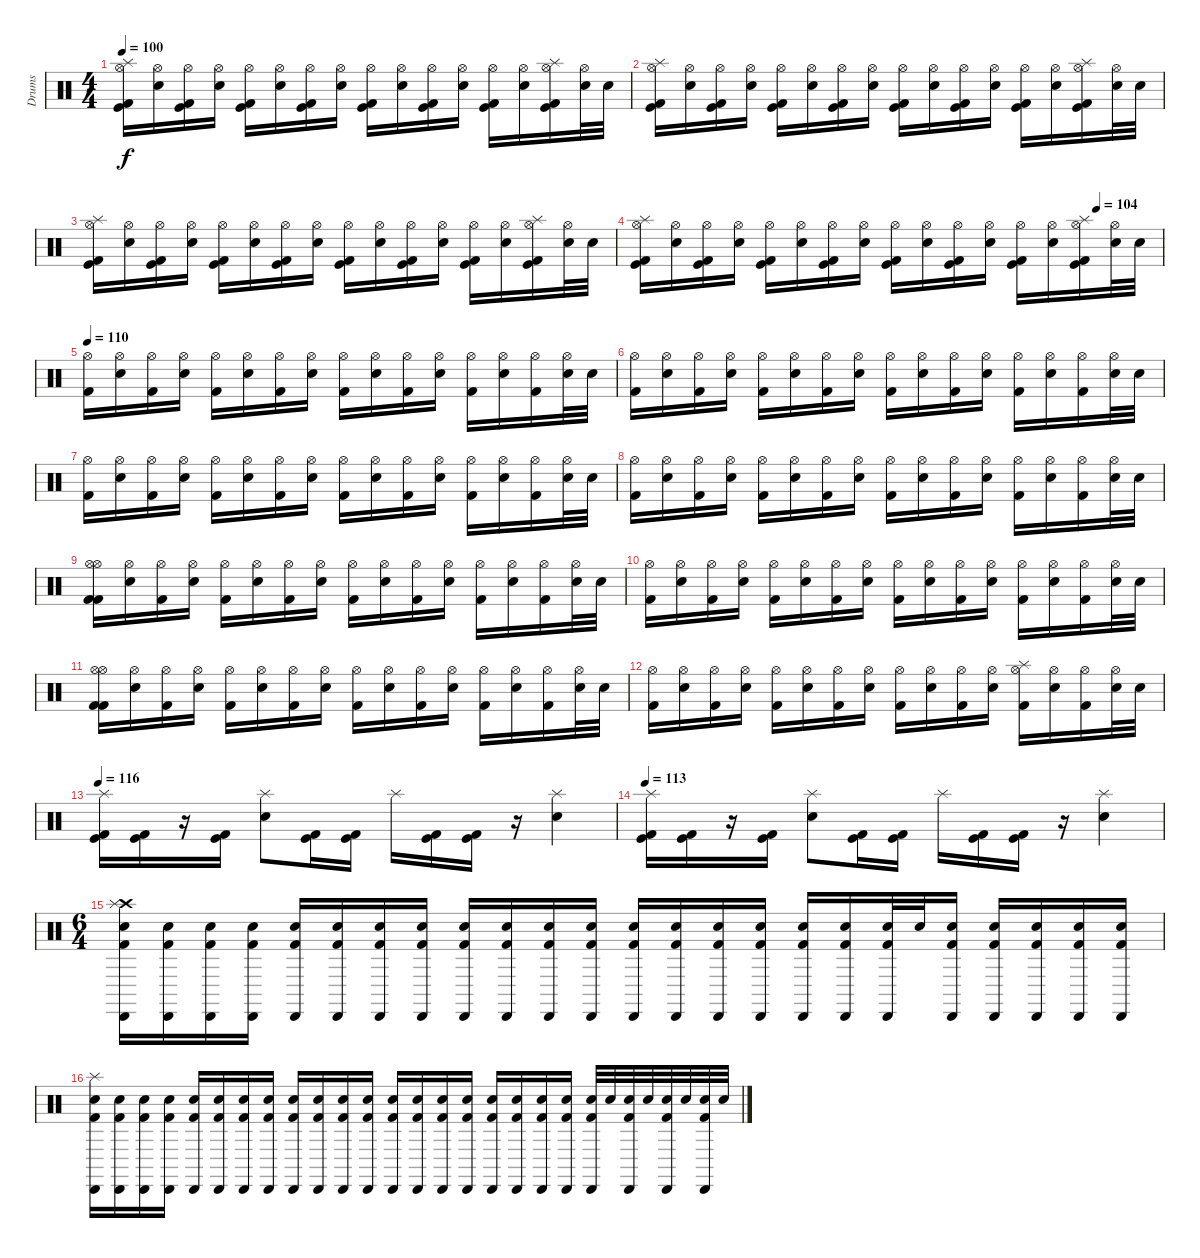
\track ("Drums" "Drums") {instrument percussion}
\staff {score}
\articulation defaults
\ts (4 4)
\tempo 100
\clef neutral
\ks c
("Splash (hit)" "Hi-Hat (open)" "Kick (hit)" "Kick (hit) 2").16{dy f} ("Hi-Hat (open)" "Snare (hit) 2").16 ("Hi-Hat (open)" "Kick (hit)" "Kick (hit) 2").16 ("Hi-Hat (open)" "Snare (hit) 2").16 ("Hi-Hat (open)" "Kick (hit)" "Kick (hit) 2").16 ("Hi-Hat (open)" "Snare (hit) 2").16 ("Hi-Hat (open)" "Kick (hit)" "Kick (hit) 2").16 ("Hi-Hat (open)" "Snare (hit) 2").16 ("Hi-Hat (open)" "Kick (hit)" "Kick (hit) 2").16 ("Hi-Hat (open)" "Snare (hit) 2").16 ("Hi-Hat (open)" "Kick (hit)" "Kick (hit) 2").16 ("Hi-Hat (open)" "Snare (hit) 2").16 ("Hi-Hat (open)" "Kick (hit)" "Kick (hit) 2").16 ("Hi-Hat (open)" "Snare (hit) 2").16 ("Splash (hit)" "Hi-Hat (open)" "Kick (hit)" "Kick (hit) 2").16 ("Hi-Hat (open)" "Snare (hit) 2").32 "Snare (hit) 2".32 |
("Splash (hit)" "Hi-Hat (open)" "Kick (hit)" "Kick (hit) 2").16 ("Hi-Hat (open)" "Snare (hit) 2").16 ("Hi-Hat (open)" "Kick (hit)" "Kick (hit) 2").16 ("Hi-Hat (open)" "Snare (hit) 2").16 ("Hi-Hat (open)" "Kick (hit)" "Kick (hit) 2").16 ("Hi-Hat (open)" "Snare (hit) 2").16 ("Hi-Hat (open)" "Kick (hit)" "Kick (hit) 2").16 ("Hi-Hat (open)" "Snare (hit) 2").16 ("Hi-Hat (open)" "Kick (hit)" "Kick (hit) 2").16 ("Hi-Hat (open)" "Snare (hit) 2").16 ("Hi-Hat (open)" "Kick (hit)" "Kick (hit) 2").16 ("Hi-Hat (open)" "Snare (hit) 2").16 ("Hi-Hat (open)" "Kick (hit)" "Kick (hit) 2").16 ("Hi-Hat (open)" "Snare (hit) 2").16 ("Splash (hit)" "Hi-Hat (open)" "Kick (hit)" "Kick (hit) 2").16 ("Hi-Hat (open)" "Snare (hit) 2").32 "Snare (hit) 2".32 |
("Splash (hit)" "Hi-Hat (open)" "Kick (hit)" "Kick (hit) 2").16 ("Hi-Hat (open)" "Snare (hit) 2").16 ("Hi-Hat (open)" "Kick (hit)" "Kick (hit) 2").16 ("Hi-Hat (open)" "Snare (hit) 2").16 ("Hi-Hat (open)" "Kick (hit)" "Kick (hit) 2").16 ("Hi-Hat (open)" "Snare (hit) 2").16 ("Hi-Hat (open)" "Kick (hit)" "Kick (hit) 2").16 ("Hi-Hat (open)" "Snare (hit) 2").16 ("Hi-Hat (open)" "Kick (hit)" "Kick (hit) 2").16 ("Hi-Hat (open)" "Snare (hit) 2").16 ("Hi-Hat (open)" "Kick (hit)" "Kick (hit) 2").16 ("Hi-Hat (open)" "Snare (hit) 2").16 ("Hi-Hat (open)" "Kick (hit)" "Kick (hit) 2").16 ("Hi-Hat (open)" "Snare (hit) 2").16 ("Splash (hit)" "Hi-Hat (open)" "Kick (hit)" "Kick (hit) 2").16 ("Hi-Hat (open)" "Snare (hit) 2").32 "Snare (hit) 2".32 |
\tempo (104 0.875)
("Splash (hit)" "Hi-Hat (open)" "Kick (hit)" "Kick (hit) 2").16 ("Hi-Hat (open)" "Snare (hit) 2").16 ("Hi-Hat (open)" "Kick (hit)" "Kick (hit) 2").16 ("Hi-Hat (open)" "Snare (hit) 2").16 ("Hi-Hat (open)" "Kick (hit)" "Kick (hit) 2").16 ("Hi-Hat (open)" "Snare (hit) 2").16 ("Hi-Hat (open)" "Kick (hit)" "Kick (hit) 2").16 ("Hi-Hat (open)" "Snare (hit) 2").16 ("Hi-Hat (open)" "Kick (hit)" "Kick (hit) 2").16 ("Hi-Hat (open)" "Snare (hit) 2").16 ("Hi-Hat (open)" "Kick (hit)" "Kick (hit) 2").16 ("Hi-Hat (open)" "Snare (hit) 2").16 ("Hi-Hat (open)" "Kick (hit)" "Kick (hit) 2").16 ("Hi-Hat (open)" "Snare (hit) 2").16 ("Splash (hit)" "Hi-Hat (open)" "Kick (hit)" "Kick (hit) 2").16 ("Hi-Hat (open)" "Snare (hit) 2").32 "Snare (hit) 2".32 |
\tempo 110
("Hi-Hat (open)" "Kick (hit) 2").16 ("Hi-Hat (open)" "Snare (hit) 2").16 ("Hi-Hat (open)" "Kick (hit) 2").16 ("Hi-Hat (open)" "Snare (hit) 2").16 ("Hi-Hat (open)" "Kick (hit) 2").16 ("Hi-Hat (open)" "Snare (hit) 2").16 ("Hi-Hat (open)" "Kick (hit) 2").16 ("Hi-Hat (open)" "Snare (hit) 2").16 ("Hi-Hat (open)" "Kick (hit) 2").16 ("Hi-Hat (open)" "Snare (hit) 2").16 ("Hi-Hat (open)" "Kick (hit) 2").16 ("Hi-Hat (open)" "Snare (hit) 2").16 ("Hi-Hat (open)" "Kick (hit) 2").16 ("Hi-Hat (open)" "Snare (hit) 2").16 ("Hi-Hat (open)" "Kick (hit) 2").16 ("Hi-Hat (open)" "Snare (hit) 2").32 "Snare (hit) 2".32 |
("Hi-Hat (open)" "Kick (hit) 2").16 ("Hi-Hat (open)" "Snare (hit) 2").16 ("Hi-Hat (open)" "Kick (hit) 2").16 ("Hi-Hat (open)" "Snare (hit) 2").16 ("Hi-Hat (open)" "Kick (hit) 2").16 ("Hi-Hat (open)" "Snare (hit) 2").16 ("Hi-Hat (open)" "Kick (hit) 2").16 ("Hi-Hat (open)" "Snare (hit) 2").16 ("Hi-Hat (open)" "Kick (hit) 2").16 ("Hi-Hat (open)" "Snare (hit) 2").16 ("Hi-Hat (open)" "Kick (hit) 2").16 ("Hi-Hat (open)" "Snare (hit) 2").16 ("Hi-Hat (open)" "Kick (hit) 2").16 ("Hi-Hat (open)" "Snare (hit) 2").16 ("Hi-Hat (open)" "Kick (hit) 2").16 ("Hi-Hat (open)" "Snare (hit) 2").32 "Snare (hit) 2".32 |
("Hi-Hat (open)" "Kick (hit) 2").16 ("Hi-Hat (open)" "Snare (hit) 2").16 ("Hi-Hat (open)" "Kick (hit) 2").16 ("Hi-Hat (open)" "Snare (hit) 2").16 ("Hi-Hat (open)" "Kick (hit) 2").16 ("Hi-Hat (open)" "Snare (hit) 2").16 ("Hi-Hat (open)" "Kick (hit) 2").16 ("Hi-Hat (open)" "Snare (hit) 2").16 ("Hi-Hat (open)" "Kick (hit) 2").16 ("Hi-Hat (open)" "Snare (hit) 2").16 ("Hi-Hat (open)" "Kick (hit) 2").16 ("Hi-Hat (open)" "Snare (hit) 2").16 ("Hi-Hat (open)" "Kick (hit) 2").16 ("Hi-Hat (open)" "Snare (hit) 2").16 ("Hi-Hat (open)" "Kick (hit) 2").16 ("Hi-Hat (open)" "Snare (hit) 2").32 "Snare (hit) 2".32 |
("Hi-Hat (open)" "Kick (hit) 2").16 ("Hi-Hat (open)" "Snare (hit) 2").16 ("Hi-Hat (open)" "Kick (hit) 2").16 ("Hi-Hat (open)" "Snare (hit) 2").16 ("Hi-Hat (open)" "Kick (hit) 2").16 ("Hi-Hat (open)" "Snare (hit) 2").16 ("Hi-Hat (open)" "Kick (hit) 2").16 ("Hi-Hat (open)" "Snare (hit) 2").16 ("Hi-Hat (open)" "Kick (hit) 2").16 ("Hi-Hat (open)" "Snare (hit) 2").16 ("Hi-Hat (open)" "Kick (hit) 2").16 ("Hi-Hat (open)" "Snare (hit) 2").16 ("Hi-Hat (open)" "Kick (hit) 2").16 ("Hi-Hat (open)" "Snare (hit) 2").16 ("Hi-Hat (open)" "Kick (hit) 2").16 ("Hi-Hat (open)" "Snare (hit) 2").32 "Snare (hit) 2".32 |
("Hi-Hat (open)" "Kick (hit) 2" "Hi-Hat (open)" "Kick (hit) 2").16 ("Hi-Hat (open)" "Snare (hit) 2").16 ("Hi-Hat (open)" "Kick (hit) 2").16 ("Hi-Hat (open)" "Snare (hit) 2").16 ("Hi-Hat (open)" "Kick (hit) 2").16 ("Hi-Hat (open)" "Snare (hit) 2").16 ("Hi-Hat (open)" "Kick (hit) 2").16 ("Hi-Hat (open)" "Snare (hit) 2").16 ("Hi-Hat (open)" "Kick (hit) 2").16 ("Hi-Hat (open)" "Snare (hit) 2").16 ("Hi-Hat (open)" "Kick (hit) 2").16 ("Hi-Hat (open)" "Snare (hit) 2").16 ("Hi-Hat (open)" "Kick (hit) 2").16 ("Hi-Hat (open)" "Snare (hit) 2").16 ("Hi-Hat (open)" "Kick (hit) 2").16 ("Hi-Hat (open)" "Snare (hit) 2").32 "Snare (hit) 2".32 |
("Hi-Hat (open)" "Kick (hit) 2").16 ("Hi-Hat (open)" "Snare (hit) 2").16 ("Hi-Hat (open)" "Kick (hit) 2").16 ("Hi-Hat (open)" "Snare (hit) 2").16 ("Hi-Hat (open)" "Kick (hit) 2").16 ("Hi-Hat (open)" "Snare (hit) 2").16 ("Hi-Hat (open)" "Kick (hit) 2").16 ("Hi-Hat (open)" "Snare (hit) 2").16 ("Hi-Hat (open)" "Kick (hit) 2").16 ("Hi-Hat (open)" "Snare (hit) 2").16 ("Hi-Hat (open)" "Kick (hit) 2").16 ("Hi-Hat (open)" "Snare (hit) 2").16 ("Hi-Hat (open)" "Kick (hit) 2").16 ("Hi-Hat (open)" "Snare (hit) 2").16 ("Hi-Hat (open)" "Kick (hit) 2").16 ("Hi-Hat (open)" "Snare (hit) 2").32 "Snare (hit) 2".32 |
("Hi-Hat (open)" "Kick (hit) 2" "Hi-Hat (open)" "Kick (hit) 2").16 ("Hi-Hat (open)" "Snare (hit) 2").16 ("Hi-Hat (open)" "Kick (hit) 2").16 ("Hi-Hat (open)" "Snare (hit) 2").16 ("Hi-Hat (open)" "Kick (hit) 2").16 ("Hi-Hat (open)" "Snare (hit) 2").16 ("Hi-Hat (open)" "Kick (hit) 2").16 ("Hi-Hat (open)" "Snare (hit) 2").16 ("Hi-Hat (open)" "Kick (hit) 2").16 ("Hi-Hat (open)" "Snare (hit) 2").16 ("Hi-Hat (open)" "Kick (hit) 2").16 ("Hi-Hat (open)" "Snare (hit) 2").16 ("Hi-Hat (open)" "Kick (hit) 2").16 ("Hi-Hat (open)" "Snare (hit) 2").16 ("Hi-Hat (open)" "Kick (hit) 2").16 ("Hi-Hat (open)" "Snare (hit) 2").32 "Snare (hit) 2".32 |
("Hi-Hat (open)" "Kick (hit) 2").16 ("Hi-Hat (open)" "Snare (hit) 2").16 ("Hi-Hat (open)" "Kick (hit) 2").16 ("Hi-Hat (open)" "Snare (hit) 2").16 ("Hi-Hat (open)" "Kick (hit) 2").16 ("Hi-Hat (open)" "Snare (hit) 2").16 ("Hi-Hat (open)" "Kick (hit) 2").16 ("Hi-Hat (open)" "Snare (hit) 2").16 ("Hi-Hat (open)" "Kick (hit) 2").16 ("Hi-Hat (open)" "Snare (hit) 2").16 ("Hi-Hat (open)" "Kick (hit) 2").16 ("Hi-Hat (open)" "Snare (hit) 2").16 ("Splash (hit)" "Hi-Hat (open)" "Kick (hit) 2").16 ("Hi-Hat (open)" "Snare (hit) 2").16 ("Hi-Hat (open)" "Kick (hit) 2").16 ("Hi-Hat (open)" "Snare (hit) 2").32 "Snare (hit) 2".32 |
\tempo 116
("Kick (hit) 2" "Kick (hit)" "Splash (hit)").16 ("Kick (hit) 2" "Kick (hit)").16 r.16 ("Kick (hit)" "Kick (hit) 2").16 ("Snare (hit) 2" "Splash (hit)").8 ("Kick (hit) 2" "Kick (hit)").16 ("Kick (hit)" "Kick (hit) 2").16 "Splash (hit)".16 ("Kick (hit)" "Kick (hit) 2").16 ("Kick (hit)" "Kick (hit) 2").16 r.16 ("Snare (hit) 2" "Splash (hit)").4 |
\tempo 113
("Kick (hit) 2" "Kick (hit)" "Splash (hit)").16 ("Kick (hit) 2" "Kick (hit)").16 r.16 ("Kick (hit)" "Kick (hit) 2").16 ("Snare (hit) 2" "Splash (hit)").8 ("Kick (hit) 2" "Kick (hit)").16 ("Kick (hit)" "Kick (hit) 2").16 "Splash (hit)".16 ("Kick (hit)" "Kick (hit) 2").16 ("Kick (hit)" "Kick (hit) 2").16 r.16 ("Snare (hit) 2" "Splash (hit)").4 |
\ts (6 4)
("Crash high (hit)" "Splash (hit)" "Cabasa (hit)" "Kick (hit) 2" "Electric Snare (hit)").16 ("Cabasa (hit)" "Kick (hit) 2" "Electric Snare (hit)").16 ("Cabasa (hit)" "Kick (hit) 2" "Electric Snare (hit)").16 ("Cabasa (hit)" "Kick (hit) 2" "Electric Snare (hit)").16 ("Cabasa (hit)" "Kick (hit) 2" "Electric Snare (hit)").16 ("Cabasa (hit)" "Kick (hit) 2" "Electric Snare (hit)").16 ("Cabasa (hit)" "Kick (hit) 2" "Electric Snare (hit)").16 ("Cabasa (hit)" "Kick (hit) 2" "Electric Snare (hit)").16 ("Cabasa (hit)" "Kick (hit) 2" "Electric Snare (hit)").16 ("Cabasa (hit)" "Kick (hit) 2" "Electric Snare (hit)").16 ("Cabasa (hit)" "Kick (hit) 2" "Electric Snare (hit)").16 ("Cabasa (hit)" "Kick (hit) 2" "Electric Snare (hit)").16 ("Cabasa (hit)" "Kick (hit) 2" "Electric Snare (hit)").16 ("Cabasa (hit)" "Kick (hit) 2" "Electric Snare (hit)").16 ("Cabasa (hit)" "Kick (hit) 2" "Electric Snare (hit)").16 ("Cabasa (hit)" "Kick (hit) 2" "Electric Snare (hit)").16 ("Cabasa (hit)" "Kick (hit) 2" "Electric Snare (hit)").16 ("Cabasa (hit)" "Kick (hit) 2" "Electric Snare (hit)").16 ("Cabasa (hit)" "Kick (hit) 2" "Electric Snare (hit)").32 "Electric Snare (hit)".32 ("Cabasa (hit)" "Kick (hit) 2" "Electric Snare (hit)").16 ("Cabasa (hit)" "Kick (hit) 2" "Electric Snare (hit)").16 ("Cabasa (hit)" "Kick (hit) 2" "Electric Snare (hit)").16 ("Cabasa (hit)" "Kick (hit) 2" "Electric Snare (hit)").16 ("Cabasa (hit)" "Kick (hit) 2" "Electric Snare (hit)").16 |
("Cabasa (hit)" "Splash (hit)" "Electric Snare (hit)" "Kick (hit) 2").16 ("Cabasa (hit)" "Kick (hit) 2" "Electric Snare (hit)").16 ("Cabasa (hit)" "Kick (hit) 2" "Electric Snare (hit)").16 ("Cabasa (hit)" "Kick (hit) 2" "Electric Snare (hit)").16 ("Cabasa (hit)" "Kick (hit) 2" "Electric Snare (hit)").16 ("Cabasa (hit)" "Kick (hit) 2" "Electric Snare (hit)").16 ("Cabasa (hit)" "Kick (hit) 2" "Electric Snare (hit)").16 ("Cabasa (hit)" "Kick (hit) 2" "Electric Snare (hit)").16 ("Cabasa (hit)" "Kick (hit) 2" "Electric Snare (hit)").16 ("Cabasa (hit)" "Kick (hit) 2" "Electric Snare (hit)").16 ("Cabasa (hit)" "Kick (hit) 2" "Electric Snare (hit)").16 ("Cabasa (hit)" "Kick (hit) 2" "Electric Snare (hit)").16 ("Cabasa (hit)" "Kick (hit) 2" "Electric Snare (hit)").16 ("Cabasa (hit)" "Kick (hit) 2" "Electric Snare (hit)").16 ("Cabasa (hit)" "Kick (hit) 2" "Electric Snare (hit)").16 ("Cabasa (hit)" "Kick (hit) 2" "Electric Snare (hit)").16 ("Cabasa (hit)" "Kick (hit) 2" "Electric Snare (hit)").16 ("Cabasa (hit)" "Kick (hit) 2" "Electric Snare (hit)").16 ("Cabasa (hit)" "Kick (hit) 2" "Electric Snare (hit)").16 ("Cabasa (hit)" "Kick (hit) 2" "Electric Snare (hit)").16 ("Cabasa (hit)" "Kick (hit) 2" "Electric Snare (hit)").32 "Electric Snare (hit)".32 ("Cabasa (hit)" "Kick (hit) 2" "Electric Snare (hit)").32 "Electric Snare (hit)".32 ("Cabasa (hit)" "Kick (hit) 2" "Electric Snare (hit)").32 "Electric Snare (hit)".32 ("Cabasa (hit)" "Kick (hit) 2" "Electric Snare (hit)").32 "Electric Snare (hit)".32
